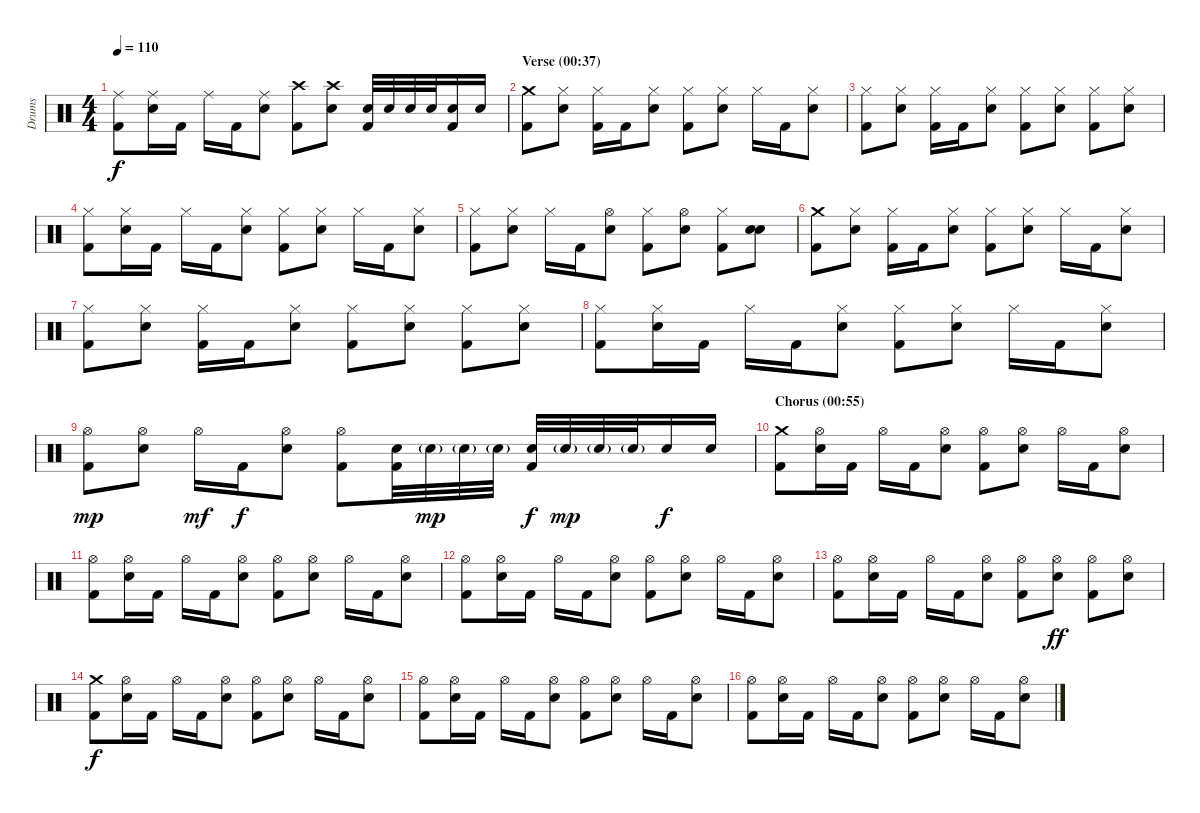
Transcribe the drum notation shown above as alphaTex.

\track ("Drums" "Drums") {instrument percussion}
\staff {score}
\articulation defaults
\ts (4 4)
\tempo 110
\clef neutral
\ks c
("Ride (middle)" "Kick (hit) 2").8{dy f} ("Ride (middle)" "Electric Snare (hit)").16 "Kick (hit) 2".16 "Ride (middle)".16 "Kick (hit) 2".16 ("Ride (middle)" "Electric Snare (hit)").8 ("Crash high (hit)" "Kick (hit) 2").8 ("Crash high (hit)" "Electric Snare (hit)").8 ("Electric Snare (hit)" "Kick (hit) 2").32 "Electric Snare (hit)".32 "Electric Snare (hit)".32 "Electric Snare (hit)".32 ("Electric Snare (hit)" "Kick (hit) 2").16 "Electric Snare (hit)".16 |
\section ("" "Verse (00:37)")
("Crash medium (hit)" "Kick (hit) 2").8 ("Hi-Hat (closed)" "Electric Snare (hit)").8 ("Hi-Hat (closed)" "Kick (hit) 2").16 "Kick (hit) 2".16 ("Hi-Hat (closed)" "Electric Snare (hit)").8 ("Hi-Hat (closed)" "Kick (hit) 2").8 ("Hi-Hat (closed)" "Electric Snare (hit)").8 "Hi-Hat (closed)".16 "Kick (hit) 2".16 ("Hi-Hat (closed)" "Electric Snare (hit)").8 |
("Hi-Hat (closed)" "Kick (hit) 2").8 ("Hi-Hat (closed)" "Electric Snare (hit)").8 ("Hi-Hat (closed)" "Kick (hit) 2").16 "Kick (hit) 2".16 ("Hi-Hat (closed)" "Electric Snare (hit)").8 ("Hi-Hat (closed)" "Kick (hit) 2").8 ("Hi-Hat (closed)" "Electric Snare (hit)").8 ("Hi-Hat (closed)" "Kick (hit) 2").8 ("Hi-Hat (closed)" "Electric Snare (hit)").8 |
("Hi-Hat (closed)" "Kick (hit) 2").8 ("Hi-Hat (closed)" "Electric Snare (hit)").16 "Kick (hit) 2".16 "Hi-Hat (closed)".16 "Kick (hit) 2".16 ("Hi-Hat (closed)" "Electric Snare (hit)").8 ("Hi-Hat (closed)" "Kick (hit) 2").8 ("Hi-Hat (closed)" "Electric Snare (hit)").8 "Hi-Hat (closed)".16 "Kick (hit) 2".16 ("Hi-Hat (closed)" "Electric Snare (hit)").8 |
("Hi-Hat (closed)" "Kick (hit) 2").8 ("Hi-Hat (closed)" "Electric Snare (hit)").8 "Hi-Hat (closed)".16 "Kick (hit) 2".16 ("Hi-Hat (open)" "Electric Snare (hit)").8 ("Hi-Hat (closed)" "Kick (hit) 2").8 ("Hi-Hat (open)" "Electric Snare (hit)").8 ("Hi-Hat (closed)" "Kick (hit) 2").8 ("Electric Snare (hit)" "Electric Snare (hit)").8{bu 120} |
("Crash medium (hit)" "Kick (hit) 2").8 ("Hi-Hat (closed)" "Electric Snare (hit)").8 ("Hi-Hat (closed)" "Kick (hit) 2").16 "Kick (hit) 2".16 ("Hi-Hat (closed)" "Electric Snare (hit)").8 ("Hi-Hat (closed)" "Kick (hit) 2").8 ("Hi-Hat (closed)" "Electric Snare (hit)").8 "Hi-Hat (closed)".16 "Kick (hit) 2".16 ("Hi-Hat (closed)" "Electric Snare (hit)").8 |
("Hi-Hat (closed)" "Kick (hit) 2").8 ("Hi-Hat (closed)" "Electric Snare (hit)").8 ("Hi-Hat (closed)" "Kick (hit) 2").16 "Kick (hit) 2".16 ("Hi-Hat (closed)" "Electric Snare (hit)").8 ("Hi-Hat (closed)" "Kick (hit) 2").8 ("Hi-Hat (closed)" "Electric Snare (hit)").8 ("Hi-Hat (closed)" "Kick (hit) 2").8 ("Hi-Hat (closed)" "Electric Snare (hit)").8 |
("Hi-Hat (closed)" "Kick (hit) 2").8 ("Hi-Hat (closed)" "Electric Snare (hit)").16 "Kick (hit) 2".16 "Hi-Hat (closed)".16 "Kick (hit) 2".16 ("Hi-Hat (closed)" "Electric Snare (hit)").8 ("Hi-Hat (closed)" "Kick (hit) 2").8 ("Hi-Hat (closed)" "Electric Snare (hit)").8 "Hi-Hat (closed)".16 "Kick (hit) 2".16 ("Hi-Hat (closed)" "Electric Snare (hit)").8 |
("Hi-Hat (open)" "Kick (hit) 2").8{dy mp} ("Hi-Hat (open)" "Electric Snare (hit)").8 "Hi-Hat (open)".16{dy mf} "Kick (hit) 2".16{dy f} ("Hi-Hat (open)" "Electric Snare (hit)").8 ("Hi-Hat (open)" "Kick (hit) 2").8 ("Electric Snare (hit)" "Kick (hit) 2").32 "Electric Snare (hit)"{g}.32{dy mp} "Electric Snare (hit)"{g}.32 "Electric Snare (hit)"{g}.32 ("Electric Snare (hit)" "Kick (hit) 2").32{dy f} "Electric Snare (hit)"{g}.32{dy mp} "Electric Snare (hit)"{g}.32 "Electric Snare (hit)"{g}.32 "Electric Snare (hit)".16{dy f} "Electric Snare (hit)".16 |
\section ("" "Chorus (00:55)")
("Crash medium (hit)" "Kick (hit) 2").8 ("Hi-Hat (open)" "Electric Snare (hit)").16 "Kick (hit) 2".16 "Hi-Hat (open)".16 "Kick (hit) 2".16 ("Hi-Hat (open)" "Electric Snare (hit)").8 ("Hi-Hat (open)" "Kick (hit) 2").8 ("Hi-Hat (open)" "Electric Snare (hit)").8 "Hi-Hat (open)".16 "Kick (hit) 2".16 ("Hi-Hat (open)" "Electric Snare (hit)").8 |
("Hi-Hat (open)" "Kick (hit) 2").8 ("Hi-Hat (open)" "Electric Snare (hit)").16 "Kick (hit) 2".16 "Hi-Hat (open)".16 "Kick (hit) 2".16 ("Hi-Hat (open)" "Electric Snare (hit)").8 ("Hi-Hat (open)" "Kick (hit) 2").8 ("Hi-Hat (open)" "Electric Snare (hit)").8 "Hi-Hat (open)".16 "Kick (hit) 2".16 ("Hi-Hat (open)" "Electric Snare (hit)").8 |
("Hi-Hat (open)" "Kick (hit) 2").8 ("Hi-Hat (open)" "Electric Snare (hit)").16 "Kick (hit) 2".16 "Hi-Hat (open)".16 "Kick (hit) 2".16 ("Hi-Hat (open)" "Electric Snare (hit)").8 ("Hi-Hat (open)" "Kick (hit) 2").8 ("Hi-Hat (open)" "Electric Snare (hit)").8 "Hi-Hat (open)".16 "Kick (hit) 2".16 ("Hi-Hat (open)" "Electric Snare (hit)").8 |
("Hi-Hat (open)" "Kick (hit) 2").8 ("Hi-Hat (open)" "Electric Snare (hit)").16 "Kick (hit) 2".16 "Hi-Hat (open)".16 "Kick (hit) 2".16 ("Hi-Hat (open)" "Electric Snare (hit)").8 ("Hi-Hat (open)" "Kick (hit) 2").8 ("Hi-Hat (open)" "Electric Snare (hit)").8{dy ff} ("Hi-Hat (open)" "Kick (hit) 2").8 ("Hi-Hat (open)" "Electric Snare (hit)").8 |
("Crash medium (hit)" "Kick (hit) 2").8{dy f} ("Hi-Hat (open)" "Electric Snare (hit)").16 "Kick (hit) 2".16 "Hi-Hat (open)".16 "Kick (hit) 2".16 ("Hi-Hat (open)" "Electric Snare (hit)").8 ("Hi-Hat (open)" "Kick (hit) 2").8 ("Hi-Hat (open)" "Electric Snare (hit)").8 "Hi-Hat (open)".16 "Kick (hit) 2".16 ("Hi-Hat (open)" "Electric Snare (hit)").8 |
("Hi-Hat (open)" "Kick (hit) 2").8 ("Hi-Hat (open)" "Electric Snare (hit)").16 "Kick (hit) 2".16 "Hi-Hat (open)".16 "Kick (hit) 2".16 ("Hi-Hat (open)" "Electric Snare (hit)").8 ("Hi-Hat (open)" "Kick (hit) 2").8 ("Hi-Hat (open)" "Electric Snare (hit)").8 "Hi-Hat (open)".16 "Kick (hit) 2".16 ("Hi-Hat (open)" "Electric Snare (hit)").8 |
("Hi-Hat (open)" "Kick (hit) 2").8 ("Hi-Hat (open)" "Electric Snare (hit)").16 "Kick (hit) 2".16 "Hi-Hat (open)".16 "Kick (hit) 2".16 ("Hi-Hat (open)" "Electric Snare (hit)").8 ("Hi-Hat (open)" "Kick (hit) 2").8 ("Hi-Hat (open)" "Electric Snare (hit)").8 "Hi-Hat (open)".16 "Kick (hit) 2".16 ("Hi-Hat (open)" "Electric Snare (hit)").8
